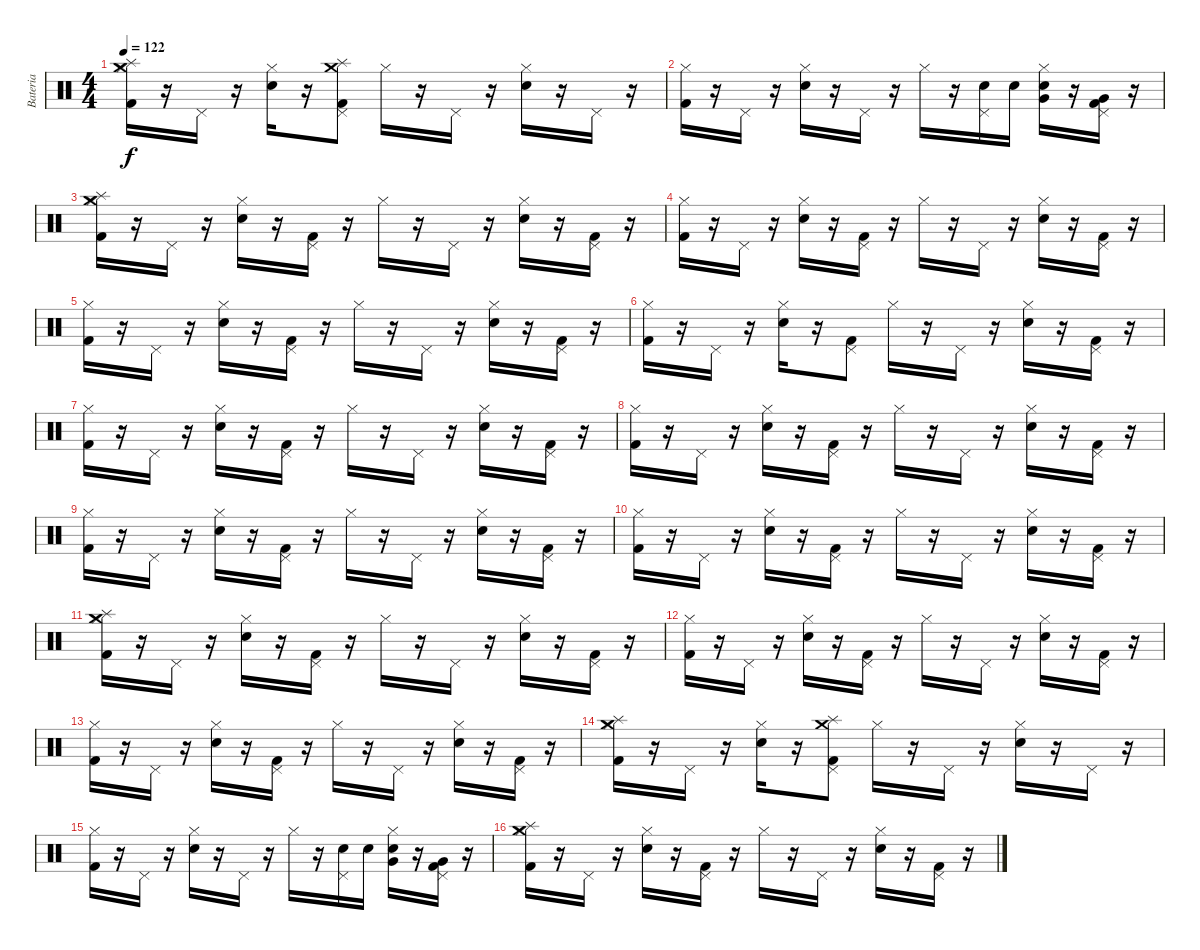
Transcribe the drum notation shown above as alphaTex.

\track ("Bateria" "Bateria") {instrument percussion}
\staff {score}
\articulation defaults
\ts (4 4)
\tempo 122
\clef neutral
\ks c
("Kick (hit) 2" "Hi-Hat (closed)" "Crash medium (hit)" "Splash (hit)").16{dy f} r.16 "Pedal Hi-Hat (hit)".16 r.16 ("Hi-Hat (closed)" "Snare (hit) 2").16 r.16 ("Splash (hit)" "Crash medium (hit)" "Pedal Hi-Hat (hit)" "Kick (hit) 2").8 "Hi-Hat (closed)".16 r.16 "Pedal Hi-Hat (hit)".16 r.16 ("Snare (hit) 2" "Hi-Hat (closed)").16 r.16 "Pedal Hi-Hat (hit)".16 r.16 |
("Kick (hit) 2" "Hi-Hat (closed)").16 r.16 "Pedal Hi-Hat (hit)".16 r.16 ("Snare (hit) 2" "Hi-Hat (closed)").16 r.16 "Pedal Hi-Hat (hit)".16 r.16 "Hi-Hat (closed)".16 r.16 ("Snare (hit) 2" "Pedal Hi-Hat (hit)").16 "Snare (hit) 2".16 ("Snare (hit) 2" "Hi-Hat (closed)" "Very Low Tom (hit)").16 r.16 ("Kick (hit) 2" "Pedal Hi-Hat (hit)" "Very Low Tom (hit)").16 r.16 |
("Kick (hit) 2" "Splash (hit)" "Crash medium (hit)" "Hi-Hat (closed)").16 r.16 "Pedal Hi-Hat (hit)".16 r.16 ("Snare (hit) 2" "Hi-Hat (closed)").16 r.16 ("Kick (hit) 2" "Pedal Hi-Hat (hit)").16 r.16 "Hi-Hat (closed)".16 r.16 "Pedal Hi-Hat (hit)".16 r.16 ("Hi-Hat (closed)" "Snare (hit) 2").16 r.16 ("Pedal Hi-Hat (hit)" "Kick (hit) 2").16 r.16 |
("Kick (hit) 2" "Hi-Hat (closed)").16 r.16 "Pedal Hi-Hat (hit)".16 r.16 ("Snare (hit) 2" "Hi-Hat (closed)").16 r.16 ("Kick (hit) 2" "Pedal Hi-Hat (hit)").16 r.16 "Hi-Hat (closed)".16 r.16 "Pedal Hi-Hat (hit)".16 r.16 ("Snare (hit) 2" "Hi-Hat (closed)").16 r.16 ("Pedal Hi-Hat (hit)" "Kick (hit) 2").16 r.16 |
("Hi-Hat (closed)" "Kick (hit) 2").16 r.16 "Pedal Hi-Hat (hit)".16 r.16 ("Snare (hit) 2" "Hi-Hat (closed)").16 r.16 ("Kick (hit) 2" "Pedal Hi-Hat (hit)").16 r.16 "Hi-Hat (closed)".16 r.16 "Pedal Hi-Hat (hit)".16 r.16 ("Snare (hit) 2" "Hi-Hat (closed)").16 r.16 ("Kick (hit) 2" "Pedal Hi-Hat (hit)").16 r.16 |
("Kick (hit) 2" "Hi-Hat (closed)").16 r.16 "Pedal Hi-Hat (hit)".16 r.16 ("Hi-Hat (closed)" "Snare (hit) 2").16 r.16 ("Pedal Hi-Hat (hit)" "Kick (hit) 2").8 "Hi-Hat (closed)".16 r.16 "Pedal Hi-Hat (hit)".16 r.16 ("Snare (hit) 2" "Hi-Hat (closed)").16 r.16 ("Kick (hit) 2" "Pedal Hi-Hat (hit)").16 r.16 |
("Kick (hit) 2" "Hi-Hat (closed)").16 r.16 "Pedal Hi-Hat (hit)".16 r.16 ("Snare (hit) 2" "Hi-Hat (closed)").16 r.16 ("Pedal Hi-Hat (hit)" "Kick (hit) 2").16 r.16 "Hi-Hat (closed)".16 r.16 "Pedal Hi-Hat (hit)".16 r.16 ("Snare (hit) 2" "Hi-Hat (closed)").16 r.16 ("Kick (hit) 2" "Pedal Hi-Hat (hit)").16 r.16 |
("Kick (hit) 2" "Hi-Hat (closed)").16 r.16 "Pedal Hi-Hat (hit)".16 r.16 ("Snare (hit) 2" "Hi-Hat (closed)").16 r.16 ("Kick (hit) 2" "Pedal Hi-Hat (hit)").16 r.16 "Hi-Hat (closed)".16 r.16 "Pedal Hi-Hat (hit)".16 r.16 ("Hi-Hat (closed)" "Snare (hit) 2").16 r.16 ("Pedal Hi-Hat (hit)" "Kick (hit) 2").16 r.16 |
("Kick (hit) 2" "Hi-Hat (closed)").16 r.16 "Pedal Hi-Hat (hit)".16 r.16 ("Snare (hit) 2" "Hi-Hat (closed)").16 r.16 ("Kick (hit) 2" "Pedal Hi-Hat (hit)").16 r.16 "Hi-Hat (closed)".16 r.16 "Pedal Hi-Hat (hit)".16 r.16 ("Snare (hit) 2" "Hi-Hat (closed)").16 r.16 ("Pedal Hi-Hat (hit)" "Kick (hit) 2").16 r.16 |
("Hi-Hat (closed)" "Kick (hit) 2").16 r.16 "Pedal Hi-Hat (hit)".16 r.16 ("Snare (hit) 2" "Hi-Hat (closed)").16 r.16 ("Kick (hit) 2" "Pedal Hi-Hat (hit)").16 r.16 "Hi-Hat (closed)".16 r.16 "Pedal Hi-Hat (hit)".16 r.16 ("Snare (hit) 2" "Hi-Hat (closed)").16 r.16 ("Kick (hit) 2" "Pedal Hi-Hat (hit)").16 r.16 |
("Kick (hit) 2" "Splash (hit)" "Crash medium (hit)" "Hi-Hat (closed)").16 r.16 "Pedal Hi-Hat (hit)".16 r.16 ("Hi-Hat (closed)" "Snare (hit) 2").16 r.16 ("Pedal Hi-Hat (hit)" "Kick (hit) 2").16 r.16 "Hi-Hat (closed)".16 r.16 "Pedal Hi-Hat (hit)".16 r.16 ("Snare (hit) 2" "Hi-Hat (closed)").16 r.16 ("Kick (hit) 2" "Pedal Hi-Hat (hit)").16 r.16 |
("Kick (hit) 2" "Hi-Hat (closed)").16 r.16 "Pedal Hi-Hat (hit)".16 r.16 ("Snare (hit) 2" "Hi-Hat (closed)").16 r.16 ("Pedal Hi-Hat (hit)" "Kick (hit) 2").16 r.16 "Hi-Hat (closed)".16 r.16 "Pedal Hi-Hat (hit)".16 r.16 ("Snare (hit) 2" "Hi-Hat (closed)").16 r.16 ("Kick (hit) 2" "Pedal Hi-Hat (hit)").16 r.16 |
("Kick (hit) 2" "Hi-Hat (closed)").16 r.16 "Pedal Hi-Hat (hit)".16 r.16 ("Snare (hit) 2" "Hi-Hat (closed)").16 r.16 ("Kick (hit) 2" "Pedal Hi-Hat (hit)").16 r.16 "Hi-Hat (closed)".16 r.16 "Pedal Hi-Hat (hit)".16 r.16 ("Hi-Hat (closed)" "Snare (hit) 2").16 r.16 ("Pedal Hi-Hat (hit)" "Kick (hit) 2").16 r.16 |
("Kick (hit) 2" "Hi-Hat (closed)" "Crash medium (hit)" "Splash (hit)").16 r.16 "Pedal Hi-Hat (hit)".16 r.16 ("Snare (hit) 2" "Hi-Hat (closed)").16 r.16 ("Kick (hit) 2" "Pedal Hi-Hat (hit)" "Crash medium (hit)" "Splash (hit)").8 "Hi-Hat (closed)".16 r.16 "Pedal Hi-Hat (hit)".16 r.16 ("Snare (hit) 2" "Hi-Hat (closed)").16 r.16 "Pedal Hi-Hat (hit)".16 r.16 |
("Hi-Hat (closed)" "Kick (hit) 2").16 r.16 "Pedal Hi-Hat (hit)".16 r.16 ("Snare (hit) 2" "Hi-Hat (closed)").16 r.16 "Pedal Hi-Hat (hit)".16 r.16 "Hi-Hat (closed)".16 r.16 ("Pedal Hi-Hat (hit)" "Snare (hit) 2").16 "Snare (hit) 2".16 ("Snare (hit) 2" "Hi-Hat (closed)" "Very Low Tom (hit)").16 r.16 ("Kick (hit) 2" "Pedal Hi-Hat (hit)" "Very Low Tom (hit)").16 r.16 |
("Kick (hit) 2" "Splash (hit)" "Crash medium (hit)" "Hi-Hat (closed)").16 r.16 "Pedal Hi-Hat (hit)".16 r.16 ("Hi-Hat (closed)" "Snare (hit) 2").16 r.16 ("Pedal Hi-Hat (hit)" "Kick (hit) 2").16 r.16 "Hi-Hat (closed)".16 r.16 "Pedal Hi-Hat (hit)".16 r.16 ("Snare (hit) 2" "Hi-Hat (closed)").16 r.16 ("Kick (hit) 2" "Pedal Hi-Hat (hit)").16 r.16
